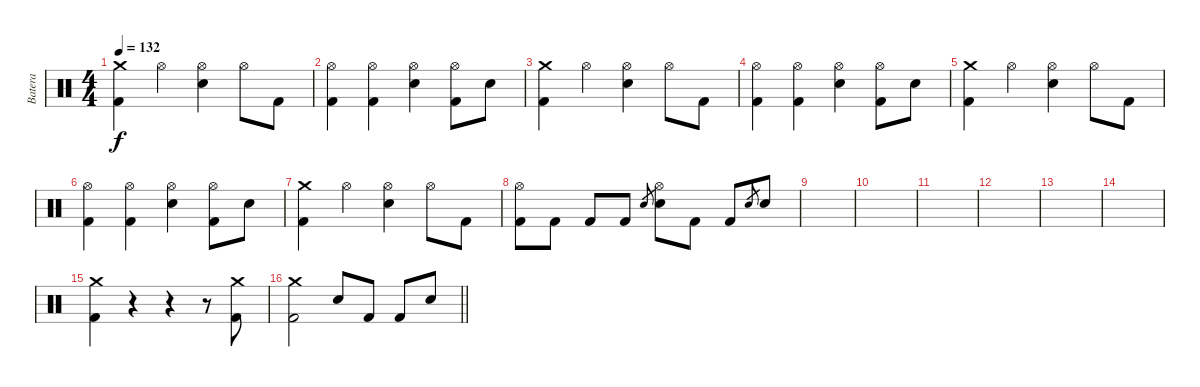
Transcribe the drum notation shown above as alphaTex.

\track ("Batera" "Batera") {instrument percussion}
\staff {score}
\articulation defaults
\ts (4 4)
\tempo 132
\clef neutral
\ks c
("Crash medium (hit)" "Kick (hit) 2").4{dy f} "Hi-Hat (open)".4 ("Hi-Hat (open)" "Electric Snare (hit)").4 "Hi-Hat (open)".8 "Kick (hit) 2".8 |
("Hi-Hat (open)" "Kick (hit) 2").4 ("Hi-Hat (open)" "Kick (hit) 2").4 ("Electric Snare (hit)" "Hi-Hat (open)").4 ("Hi-Hat (open)" "Kick (hit) 2").8 "Electric Snare (hit)".8 |
("Crash medium (hit)" "Kick (hit) 2").4 "Hi-Hat (open)".4 ("Hi-Hat (open)" "Electric Snare (hit)").4 "Hi-Hat (open)".8 "Kick (hit) 2".8 |
("Hi-Hat (open)" "Kick (hit) 2").4 ("Hi-Hat (open)" "Kick (hit) 2").4 ("Electric Snare (hit)" "Hi-Hat (open)").4 ("Hi-Hat (open)" "Kick (hit) 2").8 "Electric Snare (hit)".8 |
("Crash medium (hit)" "Kick (hit) 2").4 "Hi-Hat (open)".4 ("Hi-Hat (open)" "Electric Snare (hit)").4 "Hi-Hat (open)".8 "Kick (hit) 2".8 |
("Hi-Hat (open)" "Kick (hit) 2").4 ("Hi-Hat (open)" "Kick (hit) 2").4 ("Electric Snare (hit)" "Hi-Hat (open)").4 ("Hi-Hat (open)" "Kick (hit) 2").8 "Electric Snare (hit)".8 |
("Crash medium (hit)" "Kick (hit) 2").4 "Hi-Hat (open)".4 ("Hi-Hat (open)" "Electric Snare (hit)").4 "Hi-Hat (open)".8 "Kick (hit) 2".8 |
("Hi-Hat (open)" "Kick (hit) 2").8 "Kick (hit) 2".8 "Kick (hit) 2".8 "Kick (hit) 2".8 "Electric Snare (hit)".8{gr} ("Hi-Hat (open)" "Electric Snare (hit)").8 "Kick (hit) 2".8 "Kick (hit) 2".8 "Electric Snare (hit)".8{gr} "Electric Snare (hit)".8 |
|
|
|
|
|
|
("Crash medium (hit)" "Kick (hit) 2").4 r.4 r.4 r.8 ("Crash medium (hit)" "Kick (hit) 2").8 |
\barLineRight lightlight
("Crash medium (hit)" "Kick (hit) 2").2 "Electric Snare (hit)".8 "Kick (hit) 2".8 "Kick (hit) 2".8 "Electric Snare (hit)".8
